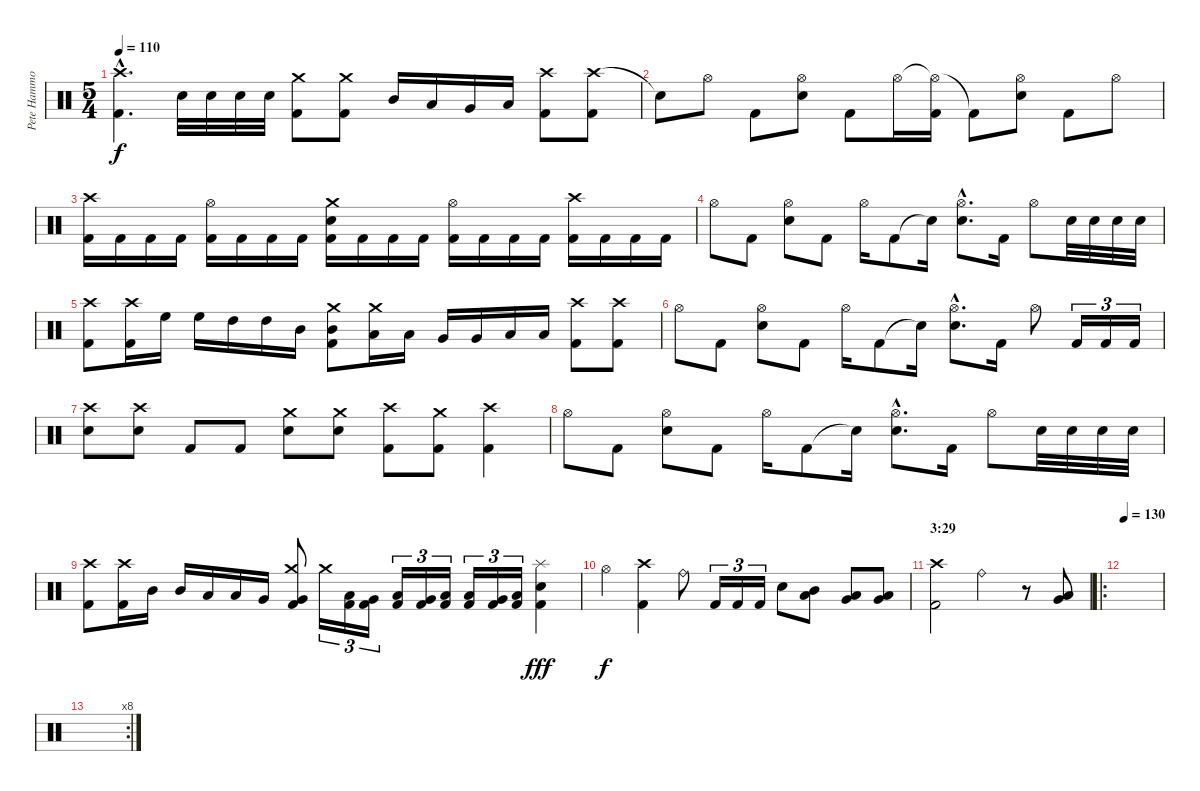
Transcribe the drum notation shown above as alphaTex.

\track ("Pete Hammoura" "Pete Hammo") {instrument percussion}
\staff {score}
\articulation defaults
\ts (5 4)
\tempo 110
\clef neutral
\ks c
("Crash high (hit)"{hac} "Kick (hit) 2"{hac}).4{d dy f} "Electric Snare (hit)".32 "Electric Snare (hit)".32 "Electric Snare (hit)".32 "Electric Snare (hit)".32 ("Crash medium (hit)" "Kick (hit) 2").8 ("Crash medium (hit)" "Kick (hit) 2").8 "Mid Tom (hit)".16 "Low Tom (hit)".16 "Very Low Tom (hit)".16 "Low Floor Tom (hit)".16 ("Crash high (hit)" "Kick (hit) 2").8 ("Crash high (hit)" "Kick (hit) 2").8 |
"Snare (hit)"{t}.8 "Hi-Hat (open)".8 "Kick (hit) 2".8 ("Hi-Hat (open)" "Electric Snare (hit)").8 "Kick (hit) 2".8 "Hi-Hat (open)".16 ("Hi-Hat (open)"{t} "Kick (hit) 2").16 "Kick (hit) 2"{t}.8 ("Hi-Hat (open)" "Electric Snare (hit)").8 "Kick (hit) 2".8 "Hi-Hat (open)".8 |
("Crash high (hit)" "Kick (hit) 2").16 "Kick (hit) 2".16 "Kick (hit) 2".16 "Kick (hit) 2".16 ("Hi-Hat (open)" "Kick (hit) 2").16 "Kick (hit) 2".16 "Kick (hit) 2".16 "Kick (hit) 2".16 ("Crash medium (hit)" "Electric Snare (hit)" "Kick (hit) 2").16 "Kick (hit) 2".16 "Kick (hit) 2".16 "Kick (hit) 2".16 ("Hi-Hat (open)" "Kick (hit) 2").16 "Kick (hit) 2".16 "Kick (hit) 2".16 "Kick (hit) 2".16 ("Crash high (hit)" "Kick (hit) 2").16 "Kick (hit) 2".16 "Kick (hit) 2".16 "Kick (hit) 2".16 |
"Hi-Hat (open)".8 "Kick (hit) 2".8 ("Hi-Hat (open)" "Electric Snare (hit)").8 "Kick (hit) 2".8 "Hi-Hat (open)".16 "Kick (hit) 2".8 "Snare (hit)"{t}.16 ("Hi-Hat (open)"{hac} "Electric Snare (hit)"{hac}).8{d} "Kick (hit) 2".16 "Hi-Hat (open)".8 "Electric Snare (hit)".32 "Electric Snare (hit)".32 "Electric Snare (hit)".32 "Electric Snare (hit)".32 |
("Crash high (hit)" "Kick (hit) 2").8 ("Crash high (hit)" "Kick (hit) 2").16 "High Floor Tom (hit)".16 "High Floor Tom (hit)".16 "High Tom (hit)".16 "High Tom (hit)".16 "Mid Tom (hit)".16 ("Crash medium (hit)" "Mid Tom (hit)" "Kick (hit) 2").8 ("Crash medium (hit)" "Low Tom (hit)").16 "Low Tom (hit)".16 "Very Low Tom (hit)".16 "Very Low Tom (hit)".16 "Low Floor Tom (hit)".16 "Low Floor Tom (hit)".16 ("Crash high (hit)" "Kick (hit) 2").8 ("Crash high (hit)" "Kick (hit) 2").8 |
"Hi-Hat (open)".8 "Kick (hit) 2".8 ("Hi-Hat (open)" "Electric Snare (hit)").8 "Kick (hit) 2".8 "Hi-Hat (open)".16 "Kick (hit) 2".8 "Snare (hit)"{t}.16 ("Hi-Hat (open)"{hac} "Electric Snare (hit)"{hac}).8{d} "Kick (hit) 2".16 "Hi-Hat (open)".8 "Kick (hit) 2".16{tu (3 2)} "Kick (hit) 2".16{tu (3 2)} "Kick (hit) 2".16{tu (3 2)} |
("Crash high (hit)" "Electric Snare (hit)").8 ("Crash high (hit)" "Electric Snare (hit)").8 "Kick (hit) 2".8 "Kick (hit) 2".8 ("Crash medium (hit)" "Electric Snare (hit)").8 ("Crash medium (hit)" "Electric Snare (hit)").8 ("Crash high (hit)" "Kick (hit) 2").8 ("Crash medium (hit)" "Kick (hit) 2").8 ("Crash high (hit)" "Kick (hit) 2").4 |
"Hi-Hat (open)".8 "Kick (hit) 2".8 ("Hi-Hat (open)" "Electric Snare (hit)").8 "Kick (hit) 2".8 "Hi-Hat (open)".16 "Kick (hit) 2".8 "Snare (hit)"{t}.16 ("Hi-Hat (open)"{hac} "Electric Snare (hit)"{hac}).8{d} "Kick (hit) 2".16 "Hi-Hat (open)".8 "Electric Snare (hit)".32 "Electric Snare (hit)".32 "Electric Snare (hit)".32 "Electric Snare (hit)".32 |
("Crash high (hit)" "Kick (hit) 2").8 ("Crash high (hit)" "Kick (hit) 2").16 "Mid Tom (hit)".16 "Mid Tom (hit)".16 "Low Tom (hit)".16 "Low Tom (hit)".16 "Very Low Tom (hit)".16 ("Crash medium (hit)" "Very Low Tom (hit)" "Kick (hit) 2").8 "Crash medium (hit)".16{tu (3 2)} ("Low Floor Tom (hit)" "Kick (hit) 2").16{tu (3 2)} ("Very Low Tom (hit)" "Kick (hit) 2").16{tu (3 2)} ("Low Tom (hit)" "Kick (hit) 2").16{tu (3 2)} ("Very Low Tom (hit)" "Kick (hit) 2").16{tu (3 2)} ("Low Floor Tom (hit)" "Kick (hit) 2").16{tu (3 2)} ("Low Tom (hit)" "Kick (hit) 2").16{tu (3 2)} ("Very Low Tom (hit)" "Kick (hit) 2").16{tu (3 2)} ("Low Floor Tom (hit)" "Kick (hit) 2").16{tu (3 2)} ("Splash (hit)" "Electric Snare (hit)" "Kick (hit) 2").4{dy fff} |
"Hi-Hat (open)".4{dy f} ("Crash high (hit)" "Kick (hit) 2").4 "Ride (bell)".8 "Kick (hit) 2".16{tu (3 2)} "Kick (hit) 2".16{tu (3 2)} "Kick (hit) 2".16{tu (3 2)} "Electric Snare (hit)".8 ("Mid Tom (hit)" "Low Tom (hit)").8 ("Low Tom (hit)" "Very Low Tom (hit)").8 ("Very Low Tom (hit)" "Low Floor Tom (hit)").8 |
\section ("" "3:29")
("Crash high (hit)" "Kick (hit) 2").2 "Ride (bell)".2 r.8 ("Low Tom (hit)" "Very Low Tom (hit)").8 |
\ro
\tempo 130
|
\rc 8
